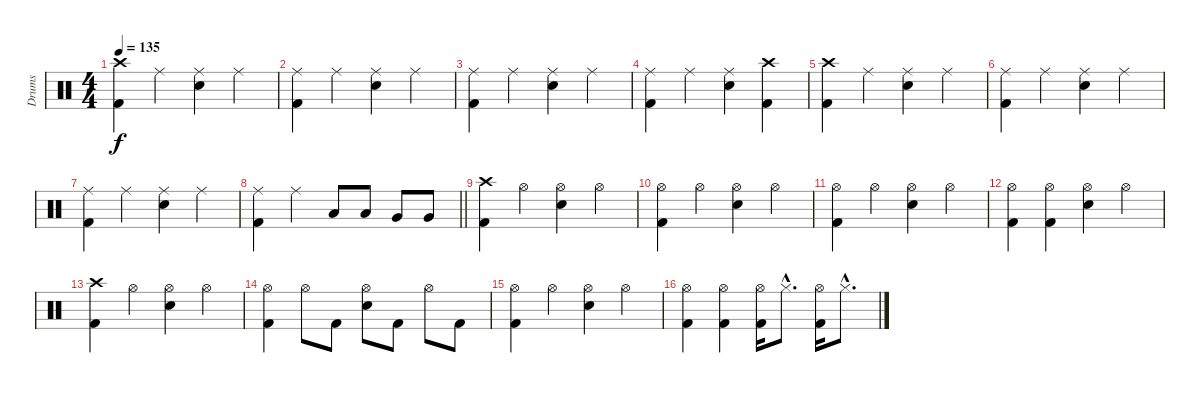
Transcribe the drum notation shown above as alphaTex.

\track ("Drums" "Drums") {instrument percussion}
\staff {score}
\articulation defaults
\ts (4 4)
\tempo 135
\clef neutral
\ks c
("Crash high (hit)" "Kick (hit) 2").4{dy f} "Ride (middle)".4 ("Ride (middle)" "Electric Snare (hit)").4 "Ride (middle)".4 |
("Ride (middle)" "Kick (hit) 2").4 "Ride (middle)".4 ("Ride (middle)" "Electric Snare (hit)").4 "Ride (middle)".4 |
("Ride (middle)" "Kick (hit) 2").4 "Ride (middle)".4 ("Ride (middle)" "Electric Snare (hit)").4 "Ride (middle)".4 |
("Ride (middle)" "Kick (hit) 2").4 "Ride (middle)".4 ("Ride (middle)" "Electric Snare (hit)").4 ("Crash high (hit)" "Kick (hit) 2").4 |
("Crash high (hit)" "Kick (hit) 2").4 "Ride (middle)".4 ("Ride (middle)" "Electric Snare (hit)").4 "Ride (middle)".4 |
("Ride (middle)" "Kick (hit) 2").4 "Ride (middle)".4 ("Ride (middle)" "Electric Snare (hit)").4 "Ride (middle)".4 |
("Ride (middle)" "Kick (hit) 2").4 "Ride (middle)".4 ("Ride (middle)" "Electric Snare (hit)").4 "Ride (middle)".4 |
\barLineRight lightlight
("Ride (middle)" "Kick (hit) 2").4 "Ride (middle)".4 "Low Tom (hit)".8 "Low Tom (hit)".8 "Very Low Tom (hit)".8 "Very Low Tom (hit)".8 |
("Crash high (hit)" "Kick (hit) 2").4 "Hi-Hat (open)".4 ("Hi-Hat (open)" "Electric Snare (hit)").4 "Hi-Hat (open)".4 |
("Hi-Hat (open)" "Kick (hit) 2").4 "Hi-Hat (open)".4 ("Hi-Hat (open)" "Electric Snare (hit)").4 "Hi-Hat (open)".4 |
("Hi-Hat (open)" "Kick (hit) 2").4 "Hi-Hat (open)".4 ("Hi-Hat (open)" "Electric Snare (hit)").4 "Hi-Hat (open)".4 |
("Hi-Hat (open)" "Kick (hit) 2").4 ("Hi-Hat (open)" "Kick (hit) 2").4 ("Hi-Hat (open)" "Electric Snare (hit)").4 "Hi-Hat (open)".4 |
("Crash high (hit)" "Kick (hit) 2").4 "Hi-Hat (open)".4 ("Hi-Hat (open)" "Electric Snare (hit)").4 "Hi-Hat (open)".4 |
("Hi-Hat (open)" "Kick (hit) 2").4 "Hi-Hat (open)".8 "Kick (hit) 2".8 ("Hi-Hat (open)" "Electric Snare (hit)").8 "Kick (hit) 2".8 "Hi-Hat (open)".8 "Kick (hit) 2".8 |
("Hi-Hat (open)" "Kick (hit) 2").4 "Hi-Hat (open)".4 ("Hi-Hat (open)" "Electric Snare (hit)").4 "Hi-Hat (open)".4 |
("Hi-Hat (open)" "Kick (hit) 2").4 ("Hi-Hat (open)" "Kick (hit) 2").4 ("Hi-Hat (open)" "Kick (hit) 2").16 "Hi-Hat (closed)"{hac}.8{d} ("Hi-Hat (open)" "Kick (hit) 2").16 "Hi-Hat (closed)"{hac}.8{d}
